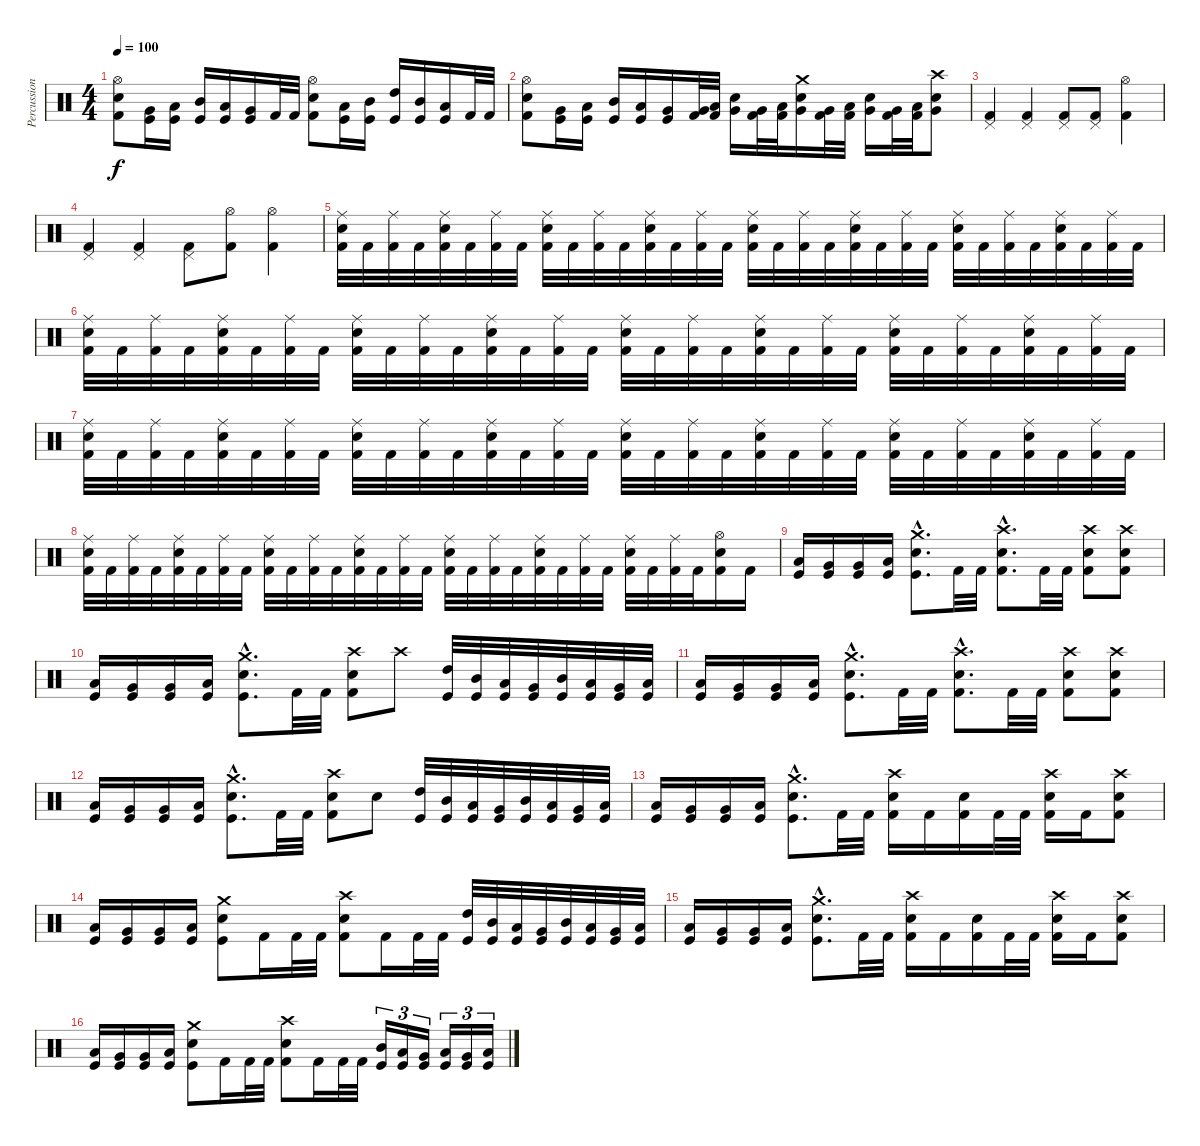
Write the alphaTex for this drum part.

\track ("Percussion" "Percussion") {instrument percussion}
\staff {score}
\articulation defaults
\ts (4 4)
\tempo 100
\clef neutral
\ks c
("Hi-Hat (open)" "Snare (hit) 2" "Kick (hit) 2").8{dy f} ("Very Low Tom (hit)" "Kick (hit)").16 ("Low Tom (hit)" "Kick (hit)").16 ("Mid Tom (hit)" "Kick (hit)").16 ("Low Tom (hit)" "Kick (hit)").16 ("Very Low Tom (hit)" "Kick (hit)").16 "Kick (hit) 2".32 "Kick (hit) 2".32 ("Hi-Hat (open)" "Snare (hit) 2" "Kick (hit) 2").8 ("Low Tom (hit)" "Kick (hit)").16 ("Mid Tom (hit)" "Kick (hit)").16 ("High Tom (hit)" "Kick (hit)").16 ("Mid Tom (hit)" "Kick (hit)").16 ("Low Tom (hit)" "Kick (hit)").16 "Kick (hit) 2".32 "Kick (hit) 2".32 |
("Hi-Hat (open)" "Snare (hit) 2" "Kick (hit) 2").8 ("Very Low Tom (hit)" "Kick (hit)").16 ("Low Tom (hit)" "Kick (hit)").16 ("Mid Tom (hit)" "Kick (hit)").16 ("Low Tom (hit)" "Kick (hit)").16 ("Very Low Tom (hit)" "Kick (hit)").16 ("Very Low Tom (hit)" "Kick (hit) 2").32 ("Low Tom (hit)" "Kick (hit) 2").32 ("Snare (hit) 2" "Very Low Tom (hit)").16 ("Very Low Tom (hit)" "Kick (hit) 2").32 ("Low Tom (hit)" "Kick (hit) 2").32 ("Crash medium (hit)" "Snare (hit) 2" "Very Low Tom (hit)").16 ("Very Low Tom (hit)" "Kick (hit) 2").32 ("Low Tom (hit)" "Kick (hit) 2").32 ("Snare (hit) 2" "Very Low Tom (hit)").16 ("Very Low Tom (hit)" "Kick (hit) 2").32 ("Low Tom (hit)" "Kick (hit) 2").32 ("Crash high (hit)" "Snare (hit) 2" "Very Low Tom (hit)").8 |
("Pedal Hi-Hat (hit)" "Kick (hit) 2").4 ("Pedal Hi-Hat (hit)" "Kick (hit) 2").4 ("Pedal Hi-Hat (hit)" "Kick (hit) 2").8 ("Pedal Hi-Hat (hit)" "Kick (hit) 2").8 ("Hi-Hat (open)" "Kick (hit) 2").4 |
("Pedal Hi-Hat (hit)" "Kick (hit) 2").4 ("Pedal Hi-Hat (hit)" "Kick (hit) 2").4 ("Pedal Hi-Hat (hit)" "Kick (hit) 2").8 ("Hi-Hat (open)" "Kick (hit) 2").8 ("Hi-Hat (open)" "Kick (hit) 2").4 |
("Ride (middle)" "Snare (hit) 2" "Kick (hit) 2").32 "Kick (hit) 2".32 ("Ride (middle)" "Kick (hit) 2").32 "Kick (hit) 2".32 ("Ride (middle)" "Snare (hit) 2" "Kick (hit) 2").32 "Kick (hit) 2".32 ("Ride (middle)" "Kick (hit) 2").32 "Kick (hit) 2".32 ("Ride (middle)" "Snare (hit) 2" "Kick (hit) 2").32 "Kick (hit) 2".32 ("Ride (middle)" "Kick (hit) 2").32 "Kick (hit) 2".32 ("Ride (middle)" "Snare (hit) 2" "Kick (hit) 2").32 "Kick (hit) 2".32 ("Ride (middle)" "Kick (hit) 2").32 "Kick (hit) 2".32 ("Ride (middle)" "Snare (hit) 2" "Kick (hit) 2").32 "Kick (hit) 2".32 ("Ride (middle)" "Kick (hit) 2").32 "Kick (hit) 2".32 ("Ride (middle)" "Snare (hit) 2" "Kick (hit) 2").32 "Kick (hit) 2".32 ("Ride (middle)" "Kick (hit) 2").32 "Kick (hit) 2".32 ("Ride (middle)" "Snare (hit) 2" "Kick (hit) 2").32 "Kick (hit) 2".32 ("Ride (middle)" "Kick (hit) 2").32 "Kick (hit) 2".32 ("Ride (middle)" "Snare (hit) 2" "Kick (hit) 2").32 "Kick (hit) 2".32 ("Ride (middle)" "Kick (hit) 2").32 "Kick (hit) 2".32 |
("Ride (middle)" "Snare (hit) 2" "Kick (hit) 2").32 "Kick (hit) 2".32 ("Ride (middle)" "Kick (hit) 2").32 "Kick (hit) 2".32 ("Ride (middle)" "Snare (hit) 2" "Kick (hit) 2").32 "Kick (hit) 2".32 ("Ride (middle)" "Kick (hit) 2").32 "Kick (hit) 2".32 ("Ride (middle)" "Snare (hit) 2" "Kick (hit) 2").32 "Kick (hit) 2".32 ("Ride (middle)" "Kick (hit) 2").32 "Kick (hit) 2".32 ("Ride (middle)" "Snare (hit) 2" "Kick (hit) 2").32 "Kick (hit) 2".32 ("Ride (middle)" "Kick (hit) 2").32 "Kick (hit) 2".32 ("Ride (middle)" "Snare (hit) 2" "Kick (hit) 2").32 "Kick (hit) 2".32 ("Ride (middle)" "Kick (hit) 2").32 "Kick (hit) 2".32 ("Ride (middle)" "Snare (hit) 2" "Kick (hit) 2").32 "Kick (hit) 2".32 ("Ride (middle)" "Kick (hit) 2").32 "Kick (hit) 2".32 ("Ride (middle)" "Snare (hit) 2" "Kick (hit) 2").32 "Kick (hit) 2".32 ("Ride (middle)" "Kick (hit) 2").32 "Kick (hit) 2".32 ("Ride (middle)" "Snare (hit) 2" "Kick (hit) 2").32 "Kick (hit) 2".32 ("Ride (middle)" "Kick (hit) 2").32 "Kick (hit) 2".32 |
("Ride (middle)" "Snare (hit) 2" "Kick (hit) 2").32 "Kick (hit) 2".32 ("Ride (middle)" "Kick (hit) 2").32 "Kick (hit) 2".32 ("Ride (middle)" "Snare (hit) 2" "Kick (hit) 2").32 "Kick (hit) 2".32 ("Ride (middle)" "Kick (hit) 2").32 "Kick (hit) 2".32 ("Ride (middle)" "Snare (hit) 2" "Kick (hit) 2").32 "Kick (hit) 2".32 ("Ride (middle)" "Kick (hit) 2").32 "Kick (hit) 2".32 ("Ride (middle)" "Snare (hit) 2" "Kick (hit) 2").32 "Kick (hit) 2".32 ("Ride (middle)" "Kick (hit) 2").32 "Kick (hit) 2".32 ("Ride (middle)" "Snare (hit) 2" "Kick (hit) 2").32 "Kick (hit) 2".32 ("Ride (middle)" "Kick (hit) 2").32 "Kick (hit) 2".32 ("Ride (middle)" "Snare (hit) 2" "Kick (hit) 2").32 "Kick (hit) 2".32 ("Ride (middle)" "Kick (hit) 2").32 "Kick (hit) 2".32 ("Ride (middle)" "Snare (hit) 2" "Kick (hit) 2").32 "Kick (hit) 2".32 ("Ride (middle)" "Kick (hit) 2").32 "Kick (hit) 2".32 ("Ride (middle)" "Snare (hit) 2" "Kick (hit) 2").32 "Kick (hit) 2".32 ("Ride (middle)" "Kick (hit) 2").32 "Kick (hit) 2".32 |
("Ride (middle)" "Snare (hit) 2" "Kick (hit) 2").32 "Kick (hit) 2".32 ("Ride (middle)" "Kick (hit) 2").32 "Kick (hit) 2".32 ("Ride (middle)" "Snare (hit) 2" "Kick (hit) 2").32 "Kick (hit) 2".32 ("Ride (middle)" "Kick (hit) 2").32 "Kick (hit) 2".32 ("Ride (middle)" "Snare (hit) 2" "Kick (hit) 2").32 "Kick (hit) 2".32 ("Ride (middle)" "Kick (hit) 2").32 "Kick (hit) 2".32 ("Ride (middle)" "Snare (hit) 2" "Kick (hit) 2").32 "Kick (hit) 2".32 ("Ride (middle)" "Kick (hit) 2").32 "Kick (hit) 2".32 ("Ride (middle)" "Snare (hit) 2" "Kick (hit) 2").32 "Kick (hit) 2".32 ("Ride (middle)" "Kick (hit) 2").32 "Kick (hit) 2".32 ("Ride (middle)" "Snare (hit) 2" "Kick (hit) 2").32 "Kick (hit) 2".32 ("Ride (middle)" "Kick (hit) 2").32 "Kick (hit) 2".32 ("Ride (middle)" "Snare (hit) 2" "Kick (hit) 2").32 "Kick (hit) 2".32 ("Ride (middle)" "Kick (hit) 2").32 "Kick (hit) 2".32 ("Hi-Hat (open)" "Snare (hit) 2" "Kick (hit) 2").16 "Kick (hit) 2".16 |
("Low Tom (hit)" "Kick (hit)").16 ("Very Low Tom (hit)" "Kick (hit)").16 ("Very Low Tom (hit)" "Kick (hit)").16 ("Low Floor Tom (hit)" "Kick (hit)").16 ("Crash medium (hit)"{hac} "Snare (hit) 2"{hac} "Kick (hit)"{hac}).8{d} "Kick (hit) 2".32 "Kick (hit) 2".32 ("Crash high (hit)"{hac} "Snare (hit) 2"{hac} "Kick (hit) 2"{hac}).8{d} "Kick (hit) 2".32 "Kick (hit) 2".32 ("Crash high (hit)" "Snare (hit) 2" "Kick (hit) 2").8 ("Crash high (hit)" "Snare (hit) 2" "Kick (hit) 2").8 |
("Low Tom (hit)" "Kick (hit)").16 ("Very Low Tom (hit)" "Kick (hit)").16 ("Very Low Tom (hit)" "Kick (hit)").16 ("Low Floor Tom (hit)" "Kick (hit)").16 ("Crash medium (hit)"{hac} "Snare (hit) 2"{hac} "Kick (hit)"{hac}).8{d} "Kick (hit) 2".32 "Kick (hit) 2".32 ("Crash high (hit)" "Snare (hit) 2" "Kick (hit) 2").8 "Crash high (hit)".8 ("High Tom (hit)" "Kick (hit)").32 ("Mid Tom (hit)" "Kick (hit)").32 ("Low Tom (hit)" "Kick (hit)").32 ("Very Low Tom (hit)" "Kick (hit)").32 ("Mid Tom (hit)" "Kick (hit)").32 ("Low Tom (hit)" "Kick (hit)").32 ("Very Low Tom (hit)" "Kick (hit)").32 ("Low Floor Tom (hit)" "Kick (hit)").32 |
("Low Tom (hit)" "Kick (hit)").16 ("Very Low Tom (hit)" "Kick (hit)").16 ("Very Low Tom (hit)" "Kick (hit)").16 ("Low Floor Tom (hit)" "Kick (hit)").16 ("Crash medium (hit)"{hac} "Snare (hit) 2"{hac} "Kick (hit)"{hac}).8{d} "Kick (hit) 2".32 "Kick (hit) 2".32 ("Crash high (hit)"{hac} "Snare (hit) 2"{hac} "Kick (hit) 2"{hac}).8{d} "Kick (hit) 2".32 "Kick (hit) 2".32 ("Crash high (hit)" "Snare (hit) 2" "Kick (hit) 2").8 ("Crash high (hit)" "Snare (hit) 2" "Kick (hit) 2").8 |
("Low Tom (hit)" "Kick (hit)").16 ("Very Low Tom (hit)" "Kick (hit)").16 ("Very Low Tom (hit)" "Kick (hit)").16 ("Low Floor Tom (hit)" "Kick (hit)").16 ("Crash medium (hit)"{hac} "Snare (hit) 2"{hac} "Kick (hit)"{hac}).8{d} "Kick (hit) 2".32 "Kick (hit) 2".32 ("Crash high (hit)" "Snare (hit) 2" "Kick (hit) 2").8 "Snare (hit) 2".8 ("High Tom (hit)" "Kick (hit)").32 ("Mid Tom (hit)" "Kick (hit)").32 ("Low Tom (hit)" "Kick (hit)").32 ("Very Low Tom (hit)" "Kick (hit)").32 ("Mid Tom (hit)" "Kick (hit)").32 ("Low Tom (hit)" "Kick (hit)").32 ("Very Low Tom (hit)" "Kick (hit)").32 ("Low Floor Tom (hit)" "Kick (hit)").32 |
("Low Tom (hit)" "Kick (hit)").16 ("Very Low Tom (hit)" "Kick (hit)").16 ("Very Low Tom (hit)" "Kick (hit)").16 ("Low Floor Tom (hit)" "Kick (hit)").16 ("Crash medium (hit)"{hac} "Snare (hit) 2"{hac} "Kick (hit)"{hac}).8{d} "Kick (hit) 2".32 "Kick (hit) 2".32 ("Crash high (hit)" "Snare (hit) 2" "Kick (hit) 2").16 "Kick (hit) 2".16 ("Snare (hit) 2" "Kick (hit) 2").16 "Kick (hit) 2".32 "Kick (hit) 2".32 ("Crash high (hit)" "Snare (hit) 2" "Kick (hit) 2").16 "Kick (hit) 2".16 ("Crash high (hit)" "Snare (hit) 2" "Kick (hit) 2").8 |
("Low Tom (hit)" "Kick (hit)").16 ("Very Low Tom (hit)" "Kick (hit)").16 ("Very Low Tom (hit)" "Kick (hit)").16 ("Low Floor Tom (hit)" "Kick (hit)").16 ("Crash medium (hit)" "Snare (hit) 2" "Kick (hit)").8 "Kick (hit) 2".16 "Kick (hit) 2".32 "Kick (hit) 2".32 ("Crash high (hit)" "Snare (hit) 2" "Kick (hit) 2").8 "Kick (hit) 2".16 "Kick (hit) 2".32 "Kick (hit) 2".32 ("High Tom (hit)" "Kick (hit)").32 ("Mid Tom (hit)" "Kick (hit)").32 ("Low Tom (hit)" "Kick (hit)").32 ("Very Low Tom (hit)" "Kick (hit)").32 ("Mid Tom (hit)" "Kick (hit)").32 ("Low Tom (hit)" "Kick (hit)").32 ("Very Low Tom (hit)" "Kick (hit)").32 ("Low Floor Tom (hit)" "Kick (hit)").32 |
("Low Tom (hit)" "Kick (hit)").16 ("Very Low Tom (hit)" "Kick (hit)").16 ("Very Low Tom (hit)" "Kick (hit)").16 ("Low Floor Tom (hit)" "Kick (hit)").16 ("Crash medium (hit)"{hac} "Snare (hit) 2"{hac} "Kick (hit)"{hac}).8{d} "Kick (hit) 2".32 "Kick (hit) 2".32 ("Crash high (hit)" "Snare (hit) 2" "Kick (hit) 2").16 "Kick (hit) 2".16 ("Snare (hit) 2" "Kick (hit) 2").16 "Kick (hit) 2".32 "Kick (hit) 2".32 ("Crash high (hit)" "Snare (hit) 2" "Kick (hit) 2").16 "Kick (hit) 2".16 ("Crash high (hit)" "Snare (hit) 2" "Kick (hit) 2").8 |
("Low Tom (hit)" "Kick (hit)").16 ("Very Low Tom (hit)" "Kick (hit)").16 ("Very Low Tom (hit)" "Kick (hit)").16 ("Low Floor Tom (hit)" "Kick (hit)").16 ("Crash medium (hit)" "Snare (hit) 2" "Kick (hit)").8 "Kick (hit) 2".16 "Kick (hit) 2".32 "Kick (hit) 2".32 ("Crash high (hit)" "Snare (hit) 2" "Kick (hit) 2").8 "Kick (hit) 2".16 "Kick (hit) 2".32 "Kick (hit) 2".32 ("Mid Tom (hit)" "Kick (hit)").16{tu (3 2)} ("Low Tom (hit)" "Kick (hit)").16{tu (3 2)} ("Very Low Tom (hit)" "Kick (hit)").16{tu (3 2)} ("Low Tom (hit)" "Kick (hit)").16{tu (3 2)} ("Very Low Tom (hit)" "Kick (hit)").16{tu (3 2)} ("Low Floor Tom (hit)" "Kick (hit)").16{tu (3 2)}
